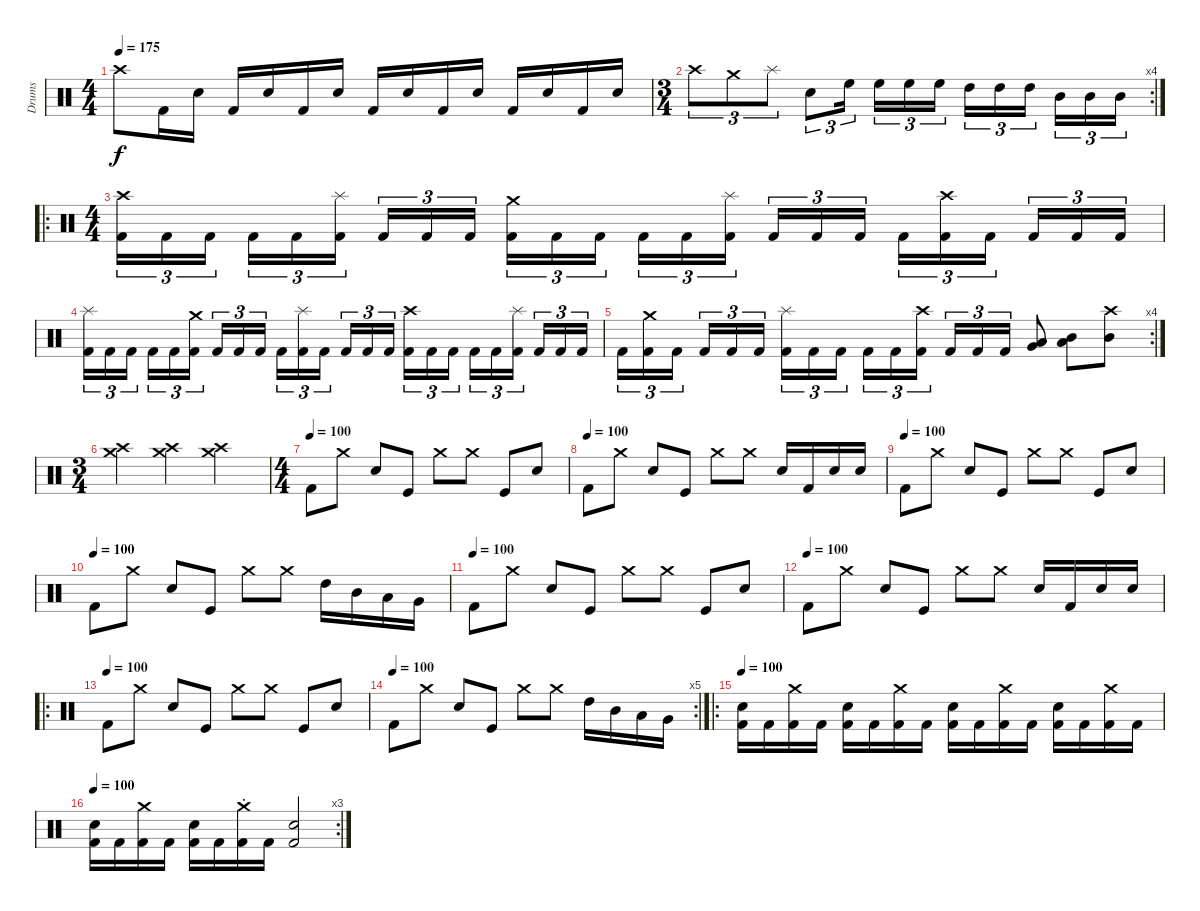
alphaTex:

\track ("Drums" "Drums") {instrument percussion}
\staff {score}
\articulation defaults
\ts (4 4)
\tempo 175
\clef neutral
\ks c "Crash high (hit)".8{dy f} "Kick (hit) 2".16 "Snare (hit) 2".16 "Kick (hit) 2".16 "Snare (hit) 2".16 "Kick (hit) 2".16 "Snare (hit) 2".16 "Kick (hit) 2".16 "Snare (hit) 2".16 "Kick (hit) 2".16 "Snare (hit) 2".16 "Kick (hit) 2".16 "Snare (hit) 2".16 "Kick (hit) 2".16 "Snare (hit) 2".16
|
\rc 4
\ts (3 4)
"Crash high (hit)".8{tu (3 2)} "Crash medium (hit)".8{tu (3 2)} "Splash (hit)".8{tu (3 2)} "Snare (hit) 2".8{tu (3 2)} "High Floor Tom (hit)".16{tu (3 2)} "High Floor Tom (hit)".16{tu (3 2)} "High Floor Tom (hit)".16{tu (3 2)} "High Floor Tom (hit)".16{tu (3 2)} "High Tom (hit)".16{tu (3 2)} "High Tom (hit)".16{tu (3 2)} "High Tom (hit)".16{tu (3 2)} "Mid Tom (hit)".16{tu (3 2)} "Mid Tom (hit)".16{tu (3 2)} "Mid Tom (hit)".16{tu (3 2)} |
\ro
\ts (4 4)
("Crash high (hit)" "Kick (hit) 2").16{tu (3 2)} "Kick (hit) 2".16{tu (3 2)} "Kick (hit) 2".16{tu (3 2)} "Kick (hit) 2".16{tu (3 2)} "Kick (hit) 2".16{tu (3 2)} ("Splash (hit)" "Kick (hit) 2").16{tu (3 2)} "Kick (hit) 2".16{tu (3 2)} "Kick (hit) 2".16{tu (3 2)} "Kick (hit) 2".16{tu (3 2)} ("Crash medium (hit)" "Kick (hit) 2").16{tu (3 2)} "Kick (hit) 2".16{tu (3 2)} "Kick (hit) 2".16{tu (3 2)} "Kick (hit) 2".16{tu (3 2)} "Kick (hit) 2".16{tu (3 2)} ("Splash (hit)" "Kick (hit) 2").16{tu (3 2)} "Kick (hit) 2".16{tu (3 2)} "Kick (hit) 2".16{tu (3 2)} "Kick (hit) 2".16{tu (3 2)} "Kick (hit) 2".16{tu (3 2)} ("Crash high (hit)" "Kick (hit) 2").16{tu (3 2)} "Kick (hit) 2".16{tu (3 2)} "Kick (hit) 2".16{tu (3 2)} "Kick (hit) 2".16{tu (3 2)} "Kick (hit) 2".16{tu (3 2)} |
("Splash (hit)" "Kick (hit) 2").16{tu (3 2)} "Kick (hit) 2".16{tu (3 2)} "Kick (hit) 2".16{tu (3 2)} "Kick (hit) 2".16{tu (3 2)} "Kick (hit) 2".16{tu (3 2)} ("Crash medium (hit)" "Kick (hit) 2").16{tu (3 2)} "Kick (hit) 2".16{tu (3 2)} "Kick (hit) 2".16{tu (3 2)} "Kick (hit) 2".16{tu (3 2)} "Kick (hit) 2".16{tu (3 2)} ("Splash (hit)" "Kick (hit) 2").16{tu (3 2)} "Kick (hit) 2".16{tu (3 2)} "Kick (hit) 2".16{tu (3 2)} "Kick (hit) 2".16{tu (3 2)} "Kick (hit) 2".16{tu (3 2)} ("Crash high (hit)" "Kick (hit) 2").16{tu (3 2)} "Kick (hit) 2".16{tu (3 2)} "Kick (hit) 2".16{tu (3 2)} "Kick (hit) 2".16{tu (3 2)} "Kick (hit) 2".16{tu (3 2)} ("Splash (hit)" "Kick (hit) 2").16{tu (3 2)} "Kick (hit) 2".16{tu (3 2)} "Kick (hit) 2".16{tu (3 2)} "Kick (hit) 2".16{tu (3 2)} |
\rc 4 "Kick (hit) 2".16{tu (3 2)}
("Crash medium (hit)" "Kick (hit) 2").16{tu (3 2)} "Kick (hit) 2".16{tu (3 2)} "Kick (hit) 2".16{tu (3 2)} "Kick (hit) 2".16{tu (3 2)} "Kick (hit) 2".16{tu (3 2)} ("Splash (hit)" "Kick (hit) 2").16{tu (3 2)} "Kick (hit) 2".16{tu (3 2)} "Kick (hit) 2".16{tu (3 2)} "Kick (hit) 2".16{tu (3 2)} "Kick (hit) 2".16{tu (3 2)} ("Crash high (hit)" "Kick (hit) 2").16{tu (3 2)} "Kick (hit) 2".16{tu (3 2)} "Kick (hit) 2".16{tu (3 2)} "Kick (hit) 2".16{tu (3 2)} ("Low Tom (hit)" "Very Low Tom (hit)").8 ("Mid Tom (hit)" "Low Tom (hit)").8 ("Crash high (hit)" "Mid Tom (hit)").8 |
\ts (3 4)
("Crash medium (hit)" "Crash high (hit)").4 ("Crash medium (hit)" "Crash high (hit)").4 ("Crash medium (hit)" "Crash high (hit)").4 |
\ts (4 4)
\tempo (100)
"Kick (hit) 2".8 "Crash medium (hit)".8 "Snare (hit) 2".8 "Kick (hit)".8 "Crash medium (hit)".8 "Crash medium (hit)".8 "Kick (hit)".8 "Snare (hit) 2".8 |
\tempo (100)
"Kick (hit) 2".8 "Crash medium (hit)".8 "Snare (hit) 2".8 "Kick (hit)".8 "Crash medium (hit)".8 "Crash medium (hit)".8 "Snare (hit) 2".16 "Kick (hit) 2".16 "Snare (hit) 2".16 "Snare (hit) 2".16 |
\tempo (100)
"Kick (hit) 2".8 "Crash medium (hit)".8 "Snare (hit) 2".8 "Kick (hit)".8 "Crash medium (hit)".8 "Crash medium (hit)".8 "Kick (hit)".8 "Snare (hit) 2".8 |
\tempo (100)
"Kick (hit) 2".8 "Crash medium (hit)".8 "Snare (hit) 2".8 "Kick (hit)".8 "Crash medium (hit)".8 "Crash medium (hit)".8 "High Tom (hit)".16 "Mid Tom (hit)".16 "Low Tom (hit)".16 "Very Low Tom (hit)".16 |
\tempo (100)
"Kick (hit) 2".8 "Crash medium (hit)".8 "Snare (hit) 2".8 "Kick (hit)".8 "Crash medium (hit)".8 "Crash medium (hit)".8 "Kick (hit)".8 "Snare (hit) 2".8 |
\tempo (100)
"Kick (hit) 2".8 "Crash medium (hit)".8 "Snare (hit) 2".8 "Kick (hit)".8 "Crash medium (hit)".8 "Crash medium (hit)".8 "Snare (hit) 2".16 "Kick (hit) 2".16 "Snare (hit) 2".16 "Snare (hit) 2".16 |
\ro
\tempo (100)
"Kick (hit) 2".8 "Crash medium (hit)".8 "Snare (hit) 2".8 "Kick (hit)".8 "Crash medium (hit)".8 "Crash medium (hit)".8 "Kick (hit)".8 "Snare (hit) 2".8 |
\rc 5
\tempo (100)
"Kick (hit) 2".8 "Crash medium (hit)".8 "Snare (hit) 2".8 "Kick (hit)".8 "Crash medium (hit)".8 "Crash medium (hit)".8 "High Tom (hit)".16 "Mid Tom (hit)".16 "Low Tom (hit)".16 "Very Low Tom (hit)".16 |
\ro
\tempo 100
("Snare (hit) 2" "Kick (hit) 2").16 "Kick (hit) 2".16 ("Crash medium (hit)" "Kick (hit) 2").16 "Kick (hit) 2".16 ("Snare (hit) 2" "Kick (hit) 2").16 "Kick (hit) 2".16 ("Crash medium (hit)" "Kick (hit) 2").16 "Kick (hit) 2".16 ("Snare (hit) 2" "Kick (hit) 2").16 "Kick (hit) 2".16 ("Crash medium (hit)" "Kick (hit) 2").16 "Kick (hit) 2".16 ("Snare (hit) 2" "Kick (hit) 2").16 "Kick (hit) 2".16 ("Crash medium (hit)" "Kick (hit) 2").16 "Kick (hit) 2".16 |
\rc 3
\tempo 100
("Snare (hit) 2" "Kick (hit) 2").16 "Kick (hit) 2".16 ("Crash medium (hit)" "Kick (hit) 2").16 "Kick (hit) 2".16 ("Snare (hit) 2" "Kick (hit) 2").16 "Kick (hit) 2".16 ("Crash medium (hit)"{st} "Kick (hit) 2").16 "Kick (hit) 2".16 ("Snare (hit) 2" "Kick (hit) 2").2
